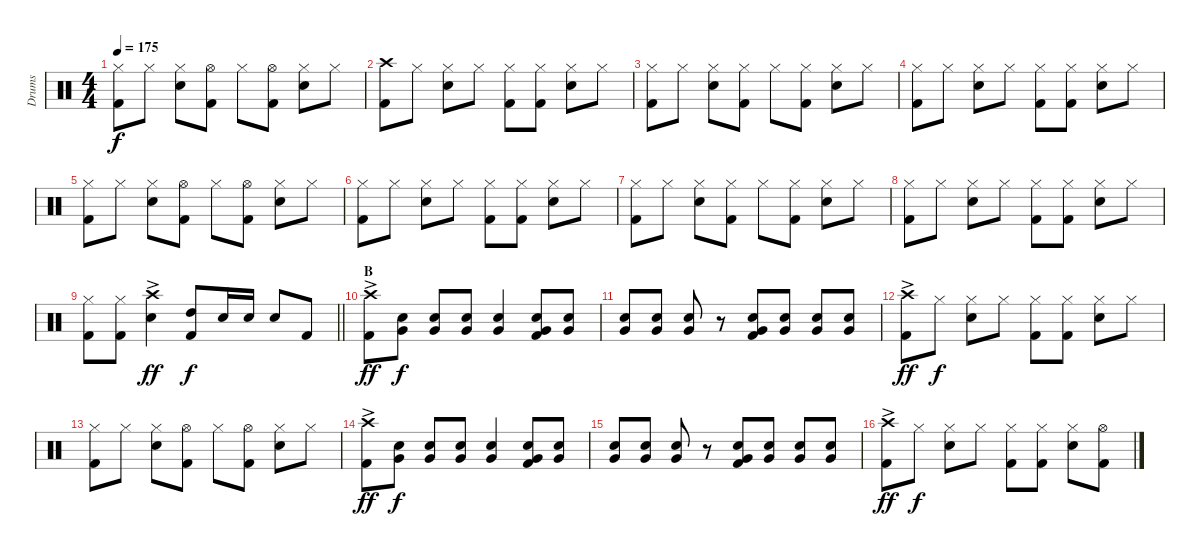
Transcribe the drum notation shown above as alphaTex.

\track ("Drums" "Drums") {instrument percussion}
\staff {score}
\articulation defaults
\ts (4 4)
\tempo 175
\clef neutral
\ks c
("Hi-Hat (closed)" "Kick (hit) 2").8{dy f} "Hi-Hat (closed)".8 ("Hi-Hat (closed)" "Snare (hit) 2").8 ("Hi-Hat (open)" "Kick (hit) 2").8 "Hi-Hat (closed)".8 ("Hi-Hat (open)" "Kick (hit) 2").8 ("Hi-Hat (closed)" "Snare (hit) 2").8 "Hi-Hat (closed)".8 |
("Crash high (hit)" "Kick (hit) 2").8 "Hi-Hat (closed)".8 ("Hi-Hat (closed)" "Snare (hit) 2").8 "Hi-Hat (closed)".8 ("Hi-Hat (closed)" "Kick (hit) 2").8 ("Hi-Hat (closed)" "Kick (hit) 2").8 ("Hi-Hat (closed)" "Snare (hit) 2").8 "Hi-Hat (closed)".8 |
("Hi-Hat (closed)" "Kick (hit) 2").8 "Hi-Hat (closed)".8 ("Hi-Hat (closed)" "Snare (hit) 2").8 ("Hi-Hat (closed)" "Kick (hit) 2").8 "Hi-Hat (closed)".8 ("Hi-Hat (closed)" "Kick (hit) 2").8 ("Hi-Hat (closed)" "Snare (hit) 2").8 "Hi-Hat (closed)".8 |
("Hi-Hat (closed)" "Kick (hit) 2").8 "Hi-Hat (closed)".8 ("Hi-Hat (closed)" "Snare (hit) 2").8 "Hi-Hat (closed)".8 ("Hi-Hat (closed)" "Kick (hit) 2").8 ("Hi-Hat (closed)" "Kick (hit) 2").8 ("Hi-Hat (closed)" "Snare (hit) 2").8 "Hi-Hat (closed)".8 |
("Hi-Hat (closed)" "Kick (hit) 2").8 "Hi-Hat (closed)".8 ("Hi-Hat (closed)" "Snare (hit) 2").8 ("Hi-Hat (open)" "Kick (hit) 2").8 "Hi-Hat (closed)".8 ("Hi-Hat (open)" "Kick (hit) 2").8 ("Hi-Hat (closed)" "Snare (hit) 2").8 "Hi-Hat (closed)".8 |
("Hi-Hat (closed)" "Kick (hit) 2").8 "Hi-Hat (closed)".8 ("Hi-Hat (closed)" "Snare (hit) 2").8 "Hi-Hat (closed)".8 ("Hi-Hat (closed)" "Kick (hit) 2").8 ("Hi-Hat (closed)" "Kick (hit) 2").8 ("Hi-Hat (closed)" "Snare (hit) 2").8 "Hi-Hat (closed)".8 |
("Hi-Hat (closed)" "Kick (hit) 2").8 "Hi-Hat (closed)".8 ("Hi-Hat (closed)" "Snare (hit) 2").8 ("Hi-Hat (closed)" "Kick (hit) 2").8 "Hi-Hat (closed)".8 ("Hi-Hat (closed)" "Kick (hit) 2").8 ("Hi-Hat (closed)" "Snare (hit) 2").8 "Hi-Hat (closed)".8 |
("Hi-Hat (closed)" "Kick (hit) 2").8 "Hi-Hat (closed)".8 ("Hi-Hat (closed)" "Snare (hit) 2").8 "Hi-Hat (closed)".8 ("Hi-Hat (closed)" "Kick (hit) 2").8 ("Hi-Hat (closed)" "Kick (hit) 2").8 ("Hi-Hat (closed)" "Snare (hit) 2").8 "Hi-Hat (closed)".8 |
\barLineRight lightlight
("Hi-Hat (closed)" "Kick (hit) 2").8 ("Hi-Hat (closed)" "Kick (hit) 2").8 ("Crash high (hit)"{ac} "Snare (hit) 2").4{dy ff} ("High Tom (hit)" "Kick (hit) 2").8{dy f} "Snare (hit) 2".16 "Snare (hit) 2".16 "Snare (hit) 2".8 "Kick (hit) 2".8 |
\section ("" "B")
("Crash high (hit)"{ac} "Kick (hit) 2").8{dy ff} ("Snare (hit) 2" "Very Low Tom (hit)").8{dy f} ("Snare (hit) 2" "Very Low Tom (hit)").8 ("Snare (hit) 2" "Very Low Tom (hit)").8 ("Snare (hit) 2" "Very Low Tom (hit)").4 ("Snare (hit) 2" "Very Low Tom (hit)" "Kick (hit) 2").8 ("Snare (hit) 2" "Very Low Tom (hit)").8 |
("Snare (hit) 2" "Very Low Tom (hit)").8 ("Snare (hit) 2" "Very Low Tom (hit)").8 ("Snare (hit) 2" "Very Low Tom (hit)").8 r.8 ("Snare (hit) 2" "Very Low Tom (hit)" "Kick (hit) 2").8 ("Snare (hit) 2" "Very Low Tom (hit)").8 ("Snare (hit) 2" "Very Low Tom (hit)").8 ("Snare (hit) 2" "Very Low Tom (hit)").8 |
("Crash high (hit)"{ac} "Kick (hit) 2").8{dy ff} "Hi-Hat (closed)".8{dy f} ("Hi-Hat (closed)" "Snare (hit) 2").8 "Hi-Hat (closed)".8 ("Hi-Hat (closed)" "Kick (hit) 2").8 ("Hi-Hat (closed)" "Kick (hit) 2").8 ("Hi-Hat (closed)" "Snare (hit) 2").8 "Hi-Hat (closed)".8 |
("Hi-Hat (closed)" "Kick (hit) 2").8 "Hi-Hat (closed)".8 ("Hi-Hat (closed)" "Snare (hit) 2").8 ("Hi-Hat (open)" "Kick (hit) 2").8 "Hi-Hat (closed)".8 ("Hi-Hat (open)" "Kick (hit) 2").8 ("Hi-Hat (closed)" "Snare (hit) 2").8 "Hi-Hat (closed)".8 |
("Crash high (hit)"{ac} "Kick (hit) 2").8{dy ff} ("Snare (hit) 2" "Very Low Tom (hit)").8{dy f} ("Snare (hit) 2" "Very Low Tom (hit)").8 ("Snare (hit) 2" "Very Low Tom (hit)").8 ("Snare (hit) 2" "Very Low Tom (hit)").4 ("Snare (hit) 2" "Very Low Tom (hit)" "Kick (hit) 2").8 ("Snare (hit) 2" "Very Low Tom (hit)").8 |
("Snare (hit) 2" "Very Low Tom (hit)").8 ("Snare (hit) 2" "Very Low Tom (hit)").8 ("Snare (hit) 2" "Very Low Tom (hit)").8 r.8 ("Snare (hit) 2" "Very Low Tom (hit)" "Kick (hit) 2").8 ("Snare (hit) 2" "Very Low Tom (hit)").8 ("Snare (hit) 2" "Very Low Tom (hit)").8 ("Snare (hit) 2" "Very Low Tom (hit)").8 |
("Crash high (hit)"{ac} "Kick (hit) 2").8{dy ff} "Hi-Hat (closed)".8{dy f} ("Hi-Hat (closed)" "Snare (hit) 2").8 "Hi-Hat (closed)".8 ("Hi-Hat (closed)" "Kick (hit) 2").8 ("Hi-Hat (closed)" "Kick (hit) 2").8 ("Hi-Hat (closed)" "Snare (hit) 2").8 ("Hi-Hat (open)" "Kick (hit) 2").8
